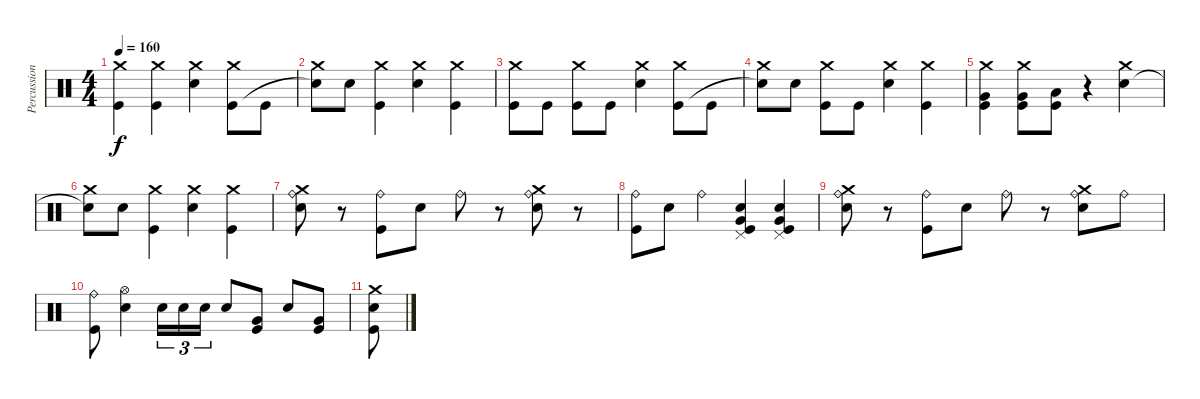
\track ("Percussion" "Percussion") {instrument percussion}
\staff {score}
\articulation defaults
\ts (4 4)
\tempo 160
\clef neutral
\ks c
("Crash medium (hit)" "Kick (hit)").4{dy f} ("Crash medium (hit)" "Kick (hit)").4 ("Crash medium (hit)" "Electric Snare (hit)").4 ("Crash medium (hit)" "Kick (hit)").8 "Kick (hit)".8 |
("Crash medium (hit)" "Snare (hit)"{t}).8 "Electric Snare (hit)".8 ("Crash medium (hit)" "Kick (hit)").4 ("Crash medium (hit)" "Electric Snare (hit)").4 ("Crash medium (hit)" "Kick (hit)").4 |
("Crash medium (hit)" "Kick (hit)").8 "Kick (hit)".8 ("Crash medium (hit)" "Kick (hit)").8 "Kick (hit)".8 ("Crash medium (hit)" "Electric Snare (hit)").4 ("Crash medium (hit)" "Kick (hit)").8 "Kick (hit)".8 |
("Crash medium (hit)" "Snare (hit)"{t}).8 "Electric Snare (hit)".8 ("Crash medium (hit)" "Kick (hit)").8 "Kick (hit)".8 ("Crash medium (hit)" "Electric Snare (hit)").4 ("Crash medium (hit)" "Kick (hit)").4 |
("Crash medium (hit)" "Very Low Tom (hit)" "Kick (hit)").4 ("Crash medium (hit)" "Very Low Tom (hit)" "Kick (hit)").8 ("Low Tom (hit)" "Kick (hit)").8 r.4 ("Crash medium (hit)" "Electric Snare (hit)").4 |
("Crash medium (hit)" "Snare (hit)"{t}).8 "Electric Snare (hit)".8 ("Crash medium (hit)" "Kick (hit)").4 ("Crash medium (hit)" "Electric Snare (hit)").4 ("Crash medium (hit)" "Kick (hit)").4 |
("Crash medium (hit)" "Electric Snare (hit)" "Ride (bell)").8 r.8 ("Ride (bell)" "Kick (hit)").8 "Electric Snare (hit)".8 "Ride (bell)".8 r.8 ("Crash medium (hit)" "Electric Snare (hit)" "Ride (bell)").8 r.8 |
("Ride (bell)" "Kick (hit)").8 "Electric Snare (hit)".8 "Ride (bell)".4 ("Pedal Hi-Hat (hit)" "Electric Snare (hit)" "Very Low Tom (hit)" "Kick (hit)").4 ("Pedal Hi-Hat (hit)" "Electric Snare (hit)" "Very Low Tom (hit)" "Kick (hit)").4 |
("Crash medium (hit)" "Electric Snare (hit)" "Ride (bell)").8 r.8 ("Ride (bell)" "Kick (hit)").8 "Electric Snare (hit)".8 "Ride (bell)".8 r.8 ("Crash medium (hit)" "Electric Snare (hit)" "Ride (bell)").8 "Ride (bell)".8 |
("Ride (bell)" "Kick (hit)").8 ("Hi-Hat (open)" "Electric Snare (hit)").4 "Electric Snare (hit)".16{tu (3 2)} "Electric Snare (hit)".16{tu (3 2)} "Electric Snare (hit)".16{tu (3 2)} "Electric Snare (hit)".8 ("Very Low Tom (hit)" "Kick (hit)").8 "Electric Snare (hit)".8 ("Very Low Tom (hit)" "Kick (hit)").8 |
("Electric Snare (hit)" "Crash medium (hit)" "Kick (hit)").8
